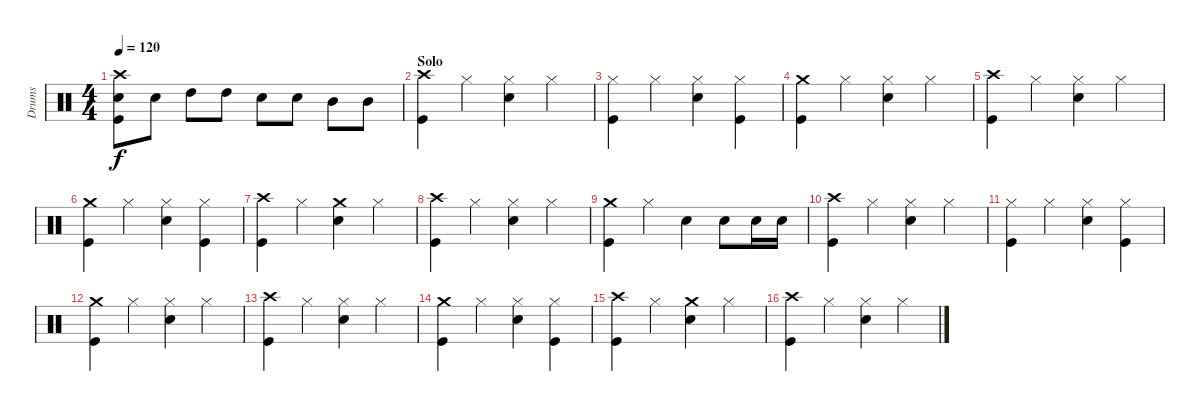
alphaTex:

\track ("Drums" "Drums") {instrument percussion}
\staff {score}
\articulation defaults
\ts (4 4)
\tempo 120
\clef neutral
\ks c
("Crash high (hit)" "Snare (hit) 2" "Kick (hit)").8{dy f} "Snare (hit) 2".8 "High Tom (hit)".8 "High Tom (hit)".8 "Snare (hit) 2".8 "Snare (hit) 2".8 "Mid Tom (hit)".8 "Mid Tom (hit)".8 |
\section ("" "Solo")
("Crash high (hit)" "Kick (hit)").4 "Hi-Hat (closed)".4 ("Hi-Hat (closed)" "Snare (hit) 2").4 "Hi-Hat (closed)".4 |
("Hi-Hat (closed)" "Kick (hit)").4 "Hi-Hat (closed)".4 ("Hi-Hat (closed)" "Snare (hit) 2").4 ("Hi-Hat (closed)" "Kick (hit)").4 |
("Crash medium (hit)" "Kick (hit)").4 "Hi-Hat (closed)".4 ("Hi-Hat (closed)" "Snare (hit) 2").4 "Hi-Hat (closed)".4 |
("Crash high (hit)" "Kick (hit)").4 "Hi-Hat (closed)".4 ("Hi-Hat (closed)" "Snare (hit) 2").4 "Hi-Hat (closed)".4 |
("Crash medium (hit)" "Kick (hit)").4 "Hi-Hat (closed)".4 ("Hi-Hat (closed)" "Snare (hit) 2").4 ("Hi-Hat (closed)" "Kick (hit)").4 |
("Crash high (hit)" "Kick (hit)").4 "Hi-Hat (closed)".4 ("Crash medium (hit)" "Snare (hit) 2").4 "Hi-Hat (closed)".4 |
("Crash high (hit)" "Kick (hit)").4 "Hi-Hat (closed)".4 ("Hi-Hat (closed)" "Snare (hit) 2").4 "Hi-Hat (closed)".4 |
("Crash medium (hit)" "Kick (hit)").4 "Hi-Hat (closed)".4 "Snare (hit) 2".4 "Snare (hit) 2".8 "Snare (hit) 2".16 "Snare (hit) 2".16 |
("Crash high (hit)" "Kick (hit)").4 "Hi-Hat (closed)".4 ("Hi-Hat (closed)" "Snare (hit) 2").4 "Hi-Hat (closed)".4 |
("Hi-Hat (closed)" "Kick (hit)").4 "Hi-Hat (closed)".4 ("Hi-Hat (closed)" "Snare (hit) 2").4 ("Hi-Hat (closed)" "Kick (hit)").4 |
("Crash medium (hit)" "Kick (hit)").4 "Hi-Hat (closed)".4 ("Hi-Hat (closed)" "Snare (hit) 2").4 "Hi-Hat (closed)".4 |
("Crash high (hit)" "Kick (hit)").4 "Hi-Hat (closed)".4 ("Hi-Hat (closed)" "Snare (hit) 2").4 "Hi-Hat (closed)".4 |
("Crash medium (hit)" "Kick (hit)").4 "Hi-Hat (closed)".4 ("Hi-Hat (closed)" "Snare (hit) 2").4 ("Hi-Hat (closed)" "Kick (hit)").4 |
("Crash high (hit)" "Kick (hit)").4 "Hi-Hat (closed)".4 ("Crash medium (hit)" "Snare (hit) 2").4 "Hi-Hat (closed)".4 |
("Crash high (hit)" "Kick (hit)").4 "Hi-Hat (closed)".4 ("Hi-Hat (closed)" "Snare (hit) 2").4 "Hi-Hat (closed)".4
